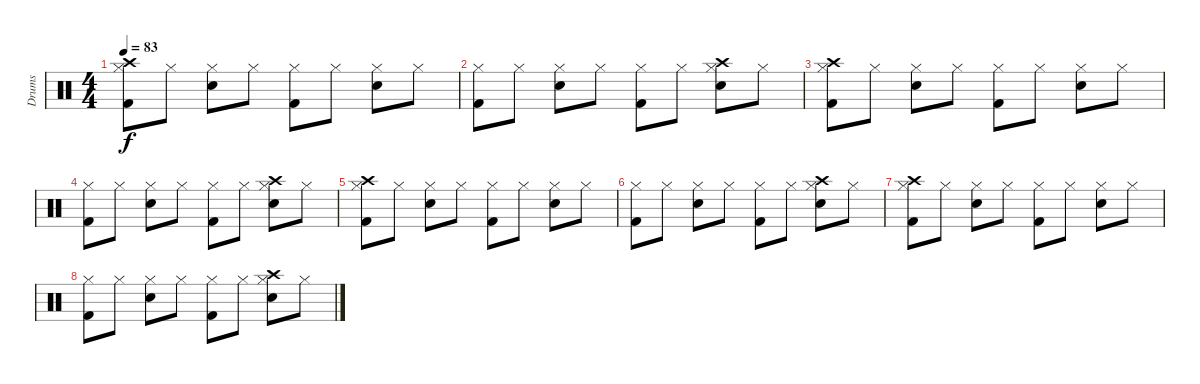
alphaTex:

\track ("Drums" "Drums") {instrument percussion}
\staff {score}
\articulation defaults
\ts (4 4)
\tempo 83
\clef neutral
\ks c
("Crash high (hit)" "Hi-Hat (closed)" "Kick (hit) 2").8{dy f} "Hi-Hat (closed)".8 ("Hi-Hat (closed)" "Snare (hit) 2").8 "Hi-Hat (closed)".8 ("Hi-Hat (closed)" "Kick (hit) 2").8 "Hi-Hat (closed)".8 ("Hi-Hat (closed)" "Snare (hit) 2").8 "Hi-Hat (closed)".8 |
("Hi-Hat (closed)" "Kick (hit) 2").8 "Hi-Hat (closed)".8 ("Hi-Hat (closed)" "Snare (hit) 2").8 "Hi-Hat (closed)".8 ("Hi-Hat (closed)" "Kick (hit) 2").8 "Hi-Hat (closed)".8 ("Crash high (hit)" "Hi-Hat (closed)" "Snare (hit) 2").8 "Hi-Hat (closed)".8 |
("Crash high (hit)" "Hi-Hat (closed)" "Kick (hit) 2").8 "Hi-Hat (closed)".8 ("Hi-Hat (closed)" "Snare (hit) 2").8 "Hi-Hat (closed)".8 ("Hi-Hat (closed)" "Kick (hit) 2").8 "Hi-Hat (closed)".8 ("Hi-Hat (closed)" "Snare (hit) 2").8 "Hi-Hat (closed)".8 |
("Hi-Hat (closed)" "Kick (hit) 2").8 "Hi-Hat (closed)".8 ("Hi-Hat (closed)" "Snare (hit) 2").8 "Hi-Hat (closed)".8 ("Hi-Hat (closed)" "Kick (hit) 2").8 "Hi-Hat (closed)".8 ("Crash high (hit)" "Hi-Hat (closed)" "Snare (hit) 2").8 "Hi-Hat (closed)".8 |
("Crash high (hit)" "Hi-Hat (closed)" "Kick (hit) 2").8 "Hi-Hat (closed)".8 ("Hi-Hat (closed)" "Snare (hit) 2").8 "Hi-Hat (closed)".8 ("Hi-Hat (closed)" "Kick (hit) 2").8 "Hi-Hat (closed)".8 ("Hi-Hat (closed)" "Snare (hit) 2").8 "Hi-Hat (closed)".8 |
("Hi-Hat (closed)" "Kick (hit) 2").8 "Hi-Hat (closed)".8 ("Hi-Hat (closed)" "Snare (hit) 2").8 "Hi-Hat (closed)".8 ("Hi-Hat (closed)" "Kick (hit) 2").8 "Hi-Hat (closed)".8 ("Crash high (hit)" "Hi-Hat (closed)" "Snare (hit) 2").8 "Hi-Hat (closed)".8 |
("Crash high (hit)" "Hi-Hat (closed)" "Kick (hit) 2").8 "Hi-Hat (closed)".8 ("Hi-Hat (closed)" "Snare (hit) 2").8 "Hi-Hat (closed)".8 ("Hi-Hat (closed)" "Kick (hit) 2").8 "Hi-Hat (closed)".8 ("Hi-Hat (closed)" "Snare (hit) 2").8 "Hi-Hat (closed)".8 |
("Hi-Hat (closed)" "Kick (hit) 2").8 "Hi-Hat (closed)".8 ("Hi-Hat (closed)" "Snare (hit) 2").8 "Hi-Hat (closed)".8 ("Hi-Hat (closed)" "Kick (hit) 2").8 "Hi-Hat (closed)".8 ("Crash high (hit)" "Hi-Hat (closed)" "Snare (hit) 2").8 "Hi-Hat (closed)".8
